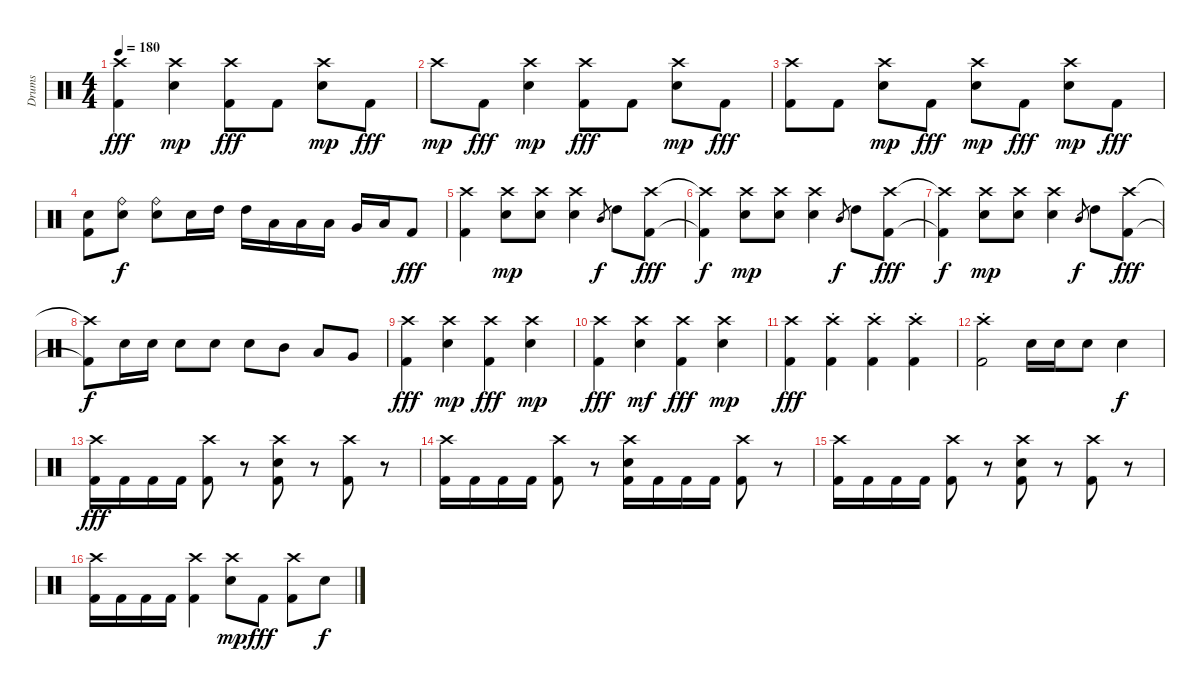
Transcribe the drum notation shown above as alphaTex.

\track ("Drums" "Drums") {instrument percussion}
\staff {score}
\articulation defaults
\ts (4 4)
\tempo 180
\clef neutral
\ks c
("Crash high (hit)" "Kick (hit) 2").4{dy fff} ("Crash high (hit)" "Electric Snare (hit)").4{dy mp} ("Crash high (hit)" "Kick (hit) 2").8{dy fff} "Kick (hit) 2".8 ("Crash high (hit)" "Electric Snare (hit)").8{dy mp} "Kick (hit) 2".8{dy fff} |
"Crash high (hit)".8{dy mp} "Kick (hit) 2".8{dy fff} ("Crash high (hit)" "Electric Snare (hit)").4{dy mp} ("Crash high (hit)" "Kick (hit) 2").8{dy fff} "Kick (hit) 2".8 ("Crash high (hit)" "Electric Snare (hit)").8{dy mp} "Kick (hit) 2".8{dy fff} |
("Crash high (hit)" "Kick (hit) 2").8 "Kick (hit) 2".8 ("Crash high (hit)" "Electric Snare (hit)").8{dy mp} "Kick (hit) 2".8{dy fff} ("Crash high (hit)" "Electric Snare (hit)").8{dy mp} "Kick (hit) 2".8{dy fff} ("Crash high (hit)" "Electric Snare (hit)").8{dy mp} "Kick (hit) 2".8{dy fff} |
("Electric Snare (hit)" "Kick (hit) 2").8 ("Ride (bell)" "Electric Snare (hit)").8{dy f} ("Ride (bell)" "Electric Snare (hit)").8 "Electric Snare (hit)".16 "High Tom (hit)".16 "High Tom (hit)".16 "Low Tom (hit)".16 "Low Tom (hit)".16 "Low Tom (hit)".16 "Very Low Tom (hit)".16 "Low Floor Tom (hit)".16 "Kick (hit) 2".8{dy fff} |
("Crash high (hit)" "Kick (hit) 2").4 ("Crash high (hit)" "Electric Snare (hit)").8{dy mp} ("Crash high (hit)" "Electric Snare (hit)").8 ("Crash high (hit)" "Electric Snare (hit)").4 "Mid Tom (hit)".8{gr dy f} "High Tom (hit)".8 ("Crash high (hit)" "Kick (hit) 2").8{dy fff} |
("Crash high (hit)"{t} "Kick (hit) 2"{t}).4{dy f} ("Crash high (hit)" "Electric Snare (hit)").8{dy mp} ("Crash high (hit)" "Electric Snare (hit)").8 ("Crash high (hit)" "Electric Snare (hit)").4 "Mid Tom (hit)".8{gr dy f} "High Tom (hit)".8 ("Crash high (hit)" "Kick (hit) 2").8{dy fff} |
("Crash high (hit)"{t} "Kick (hit) 2"{t}).4{dy f} ("Crash high (hit)" "Electric Snare (hit)").8{dy mp} ("Crash high (hit)" "Electric Snare (hit)").8 ("Crash high (hit)" "Electric Snare (hit)").4 "Mid Tom (hit)".8{gr dy f} "High Tom (hit)".8 ("Crash high (hit)" "Kick (hit) 2").8{dy fff} |
("Crash high (hit)"{t} "Kick (hit) 2"{t}).8{dy f} "Electric Snare (hit)".16 "Electric Snare (hit)".16 "Electric Snare (hit)".8 "Electric Snare (hit)".8 "Electric Snare (hit)".8 "Mid Tom (hit)".8 "Low Tom (hit)".8 "Very Low Tom (hit)".8 |
("Crash high (hit)" "Kick (hit) 2").4{dy fff} ("Crash high (hit)" "Electric Snare (hit)").4{dy mp} ("Crash high (hit)" "Kick (hit) 2").4{dy fff} ("Crash high (hit)" "Electric Snare (hit)").4{dy mp} |
("Crash high (hit)" "Kick (hit) 2").4{dy fff} ("Crash high (hit)" "Electric Snare (hit)").4{dy mf} ("Crash high (hit)" "Kick (hit) 2").4{dy fff} ("Crash high (hit)" "Electric Snare (hit)").4{dy mp} |
("Crash high (hit)" "Kick (hit) 2").4{dy fff} ("Crash high (hit)"{st} "Kick (hit) 2").4 ("Crash high (hit)"{st} "Kick (hit) 2").4 ("Crash high (hit)"{st} "Kick (hit) 2").4 |
("Crash high (hit)"{st} "Kick (hit) 2").2 "Electric Snare (hit)".16 "Electric Snare (hit)".16 "Electric Snare (hit)".8 "Electric Snare (hit)".4{dy f} |
("Crash high (hit)" "Kick (hit) 2").16{dy fff} "Kick (hit) 2".16 "Kick (hit) 2".16 "Kick (hit) 2".16 ("Crash high (hit)" "Kick (hit) 2").8 r.8 ("Crash high (hit)" "Electric Snare (hit)" "Kick (hit) 2").8 r.8 ("Crash high (hit)" "Kick (hit) 2").8 r.8 |
("Crash high (hit)" "Kick (hit) 2").16 "Kick (hit) 2".16 "Kick (hit) 2".16 "Kick (hit) 2".16 ("Crash high (hit)" "Kick (hit) 2").8 r.8 ("Crash high (hit)" "Electric Snare (hit)" "Kick (hit) 2").16 "Kick (hit) 2".16 "Kick (hit) 2".16 "Kick (hit) 2".16 ("Crash high (hit)" "Kick (hit) 2").8 r.8 |
("Crash high (hit)" "Kick (hit) 2").16 "Kick (hit) 2".16 "Kick (hit) 2".16 "Kick (hit) 2".16 ("Crash high (hit)" "Kick (hit) 2").8 r.8 ("Crash high (hit)" "Electric Snare (hit)" "Kick (hit) 2").8 r.8 ("Crash high (hit)" "Kick (hit) 2").8 r.8 |
("Crash high (hit)" "Kick (hit) 2").16 "Kick (hit) 2".16 "Kick (hit) 2".16 "Kick (hit) 2".16 ("Crash high (hit)" "Kick (hit) 2").4 ("Crash high (hit)" "Electric Snare (hit)").8{dy mp} "Kick (hit) 2".8{dy fff} ("Crash high (hit)" "Kick (hit) 2").8 "Electric Snare (hit)".8{dy f}
